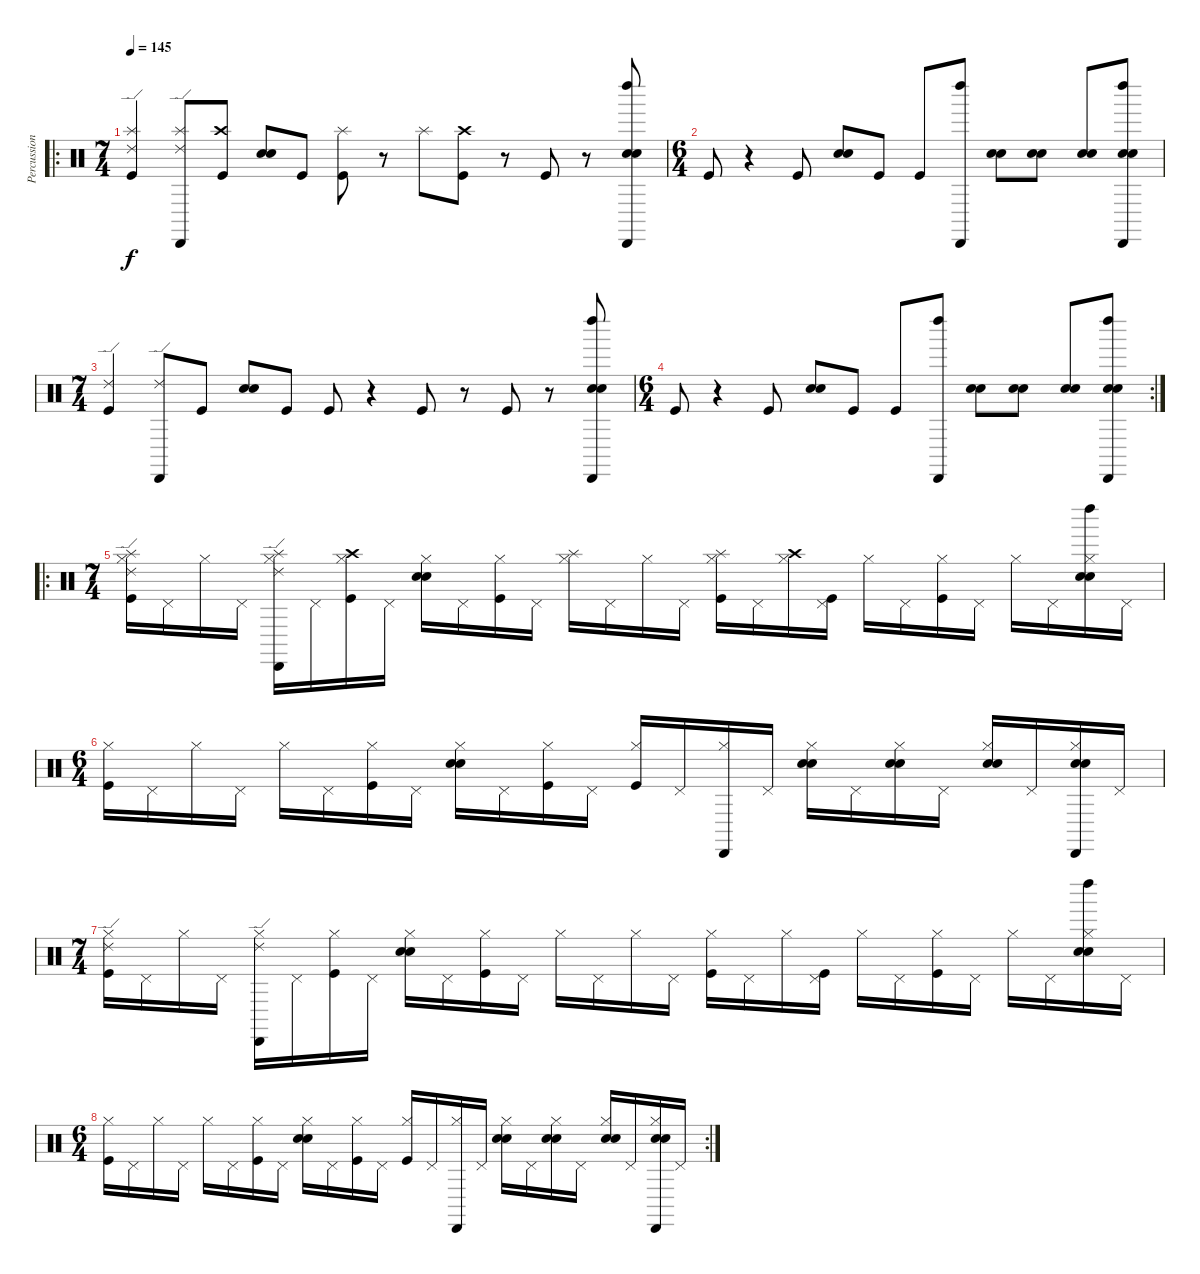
\track ("Percussion" "Percussion") {instrument percussion}
\staff {score}
\articulation defaults
\ro
\ts (7 4)
\tempo 145
\clef neutral
\ks c
("Ride (edge) 2" "Splash (hit)" "Kick (hit)").4{dy f} ("Ride (edge) 2" "Cabasa (hit)" "Splash (hit)").8 ("Crash high (hit)" "Kick (hit)").8 ("Electric Snare (hit)" "Snare (hit) 2").8 "Kick (hit)".8 ("Splash (hit)" "Kick (hit)").8 r.8 "Splash (hit)".8 ("Crash high (hit)" "Kick (hit)").8 r.8 "Kick (hit)".8 r.8 ("Cabasa (hit)" "Left Maraca (hit)" "Electric Snare (hit)" "Snare (hit) 2").8 |
\ts (6 4)
"Kick (hit)".8 r.4 "Kick (hit)".8 ("Electric Snare (hit)" "Snare (hit) 2").8 "Kick (hit)".8 "Kick (hit)".8 ("Left Maraca (hit)" "Cabasa (hit)").8 ("Electric Snare (hit)" "Snare (hit) 2").8 ("Electric Snare (hit)" "Snare (hit) 2").8 ("Electric Snare (hit)" "Snare (hit) 2").8 ("Left Maraca (hit)" "Cabasa (hit)" "Electric Snare (hit)" "Snare (hit) 2").8 |
\ts (7 4)
("Ride (edge) 2" "Kick (hit)").4 ("Ride (edge) 2" "Cabasa (hit)").8 "Kick (hit)".8 ("Electric Snare (hit)" "Snare (hit) 2").8 "Kick (hit)".8 "Kick (hit)".8 r.4 "Kick (hit)".8 r.8 "Kick (hit)".8 r.8 ("Cabasa (hit)" "Left Maraca (hit)" "Electric Snare (hit)" "Snare (hit) 2").8 |
\rc 2
\ts (6 4)
"Kick (hit)".8 r.4 "Kick (hit)".8 ("Electric Snare (hit)" "Snare (hit) 2").8 "Kick (hit)".8 "Kick (hit)".8 ("Left Maraca (hit)" "Cabasa (hit)").8 ("Electric Snare (hit)" "Snare (hit) 2").8 ("Electric Snare (hit)" "Snare (hit) 2").8 ("Electric Snare (hit)" "Snare (hit) 2").8 ("Left Maraca (hit)" "Cabasa (hit)" "Electric Snare (hit)" "Snare (hit) 2").8 |
\ro
\ts (7 4)
("Hi-Hat (closed)" "Splash (hit)" "Ride (edge) 2" "Kick (hit)").16 "Pedal Hi-Hat (hit)".16 "Hi-Hat (closed)".16 "Pedal Hi-Hat (hit)".16 ("Hi-Hat (closed)" "Cabasa (hit)" "Ride (edge) 2" "Splash (hit)").16 "Pedal Hi-Hat (hit)".16 ("Hi-Hat (closed)" "Crash high (hit)" "Kick (hit)").16 "Pedal Hi-Hat (hit)".16 ("Hi-Hat (closed)" "Electric Snare (hit)" "Snare (hit) 2").16 "Pedal Hi-Hat (hit)".16 ("Hi-Hat (closed)" "Kick (hit)").16 "Pedal Hi-Hat (hit)".16 ("Hi-Hat (closed)" "Splash (hit)").16 "Pedal Hi-Hat (hit)".16 "Hi-Hat (closed)".16 "Pedal Hi-Hat (hit)".16 ("Hi-Hat (closed)" "Splash (hit)" "Kick (hit)").16 "Pedal Hi-Hat (hit)".16 ("Hi-Hat (closed)" "Crash high (hit)").16 ("Pedal Hi-Hat (hit)" "Kick (hit)").16 "Hi-Hat (closed)".16 "Pedal Hi-Hat (hit)".16 ("Hi-Hat (closed)" "Kick (hit)").16 "Pedal Hi-Hat (hit)".16 "Hi-Hat (closed)".16 "Pedal Hi-Hat (hit)".16 ("Hi-Hat (closed)" "Left Maraca (hit)" "Electric Snare (hit)" "Snare (hit) 2").16 "Pedal Hi-Hat (hit)".16 |
\ts (6 4)
("Hi-Hat (closed)" "Kick (hit)").16 "Pedal Hi-Hat (hit)".16 "Hi-Hat (closed)".16 "Pedal Hi-Hat (hit)".16 "Hi-Hat (closed)".16 "Pedal Hi-Hat (hit)".16 ("Hi-Hat (closed)" "Kick (hit)").16 "Pedal Hi-Hat (hit)".16 ("Hi-Hat (closed)" "Electric Snare (hit)" "Snare (hit) 2").16 "Pedal Hi-Hat (hit)".16 ("Hi-Hat (closed)" "Kick (hit)").16 "Pedal Hi-Hat (hit)".16 ("Hi-Hat (closed)" "Kick (hit)").16 "Pedal Hi-Hat (hit)".16 ("Hi-Hat (closed)" "Cabasa (hit)").16 "Pedal Hi-Hat (hit)".16 ("Hi-Hat (closed)" "Electric Snare (hit)" "Snare (hit) 2").16 "Pedal Hi-Hat (hit)".16 ("Hi-Hat (closed)" "Electric Snare (hit)" "Snare (hit) 2").16 "Pedal Hi-Hat (hit)".16 ("Hi-Hat (closed)" "Electric Snare (hit)" "Snare (hit) 2").16 "Pedal Hi-Hat (hit)".16 ("Hi-Hat (closed)" "Cabasa (hit)" "Electric Snare (hit)" "Snare (hit) 2").16 "Pedal Hi-Hat (hit)".16 |
\ts (7 4)
("Hi-Hat (closed)" "Ride (edge) 2" "Kick (hit)").16 "Pedal Hi-Hat (hit)".16 "Hi-Hat (closed)".16 "Pedal Hi-Hat (hit)".16 ("Hi-Hat (closed)" "Cabasa (hit)" "Ride (edge) 2").16 "Pedal Hi-Hat (hit)".16 ("Hi-Hat (closed)" "Kick (hit)").16 "Pedal Hi-Hat (hit)".16 ("Hi-Hat (closed)" "Electric Snare (hit)" "Snare (hit) 2").16 "Pedal Hi-Hat (hit)".16 ("Hi-Hat (closed)" "Kick (hit)").16 "Pedal Hi-Hat (hit)".16 "Hi-Hat (closed)".16 "Pedal Hi-Hat (hit)".16 "Hi-Hat (closed)".16 "Pedal Hi-Hat (hit)".16 ("Hi-Hat (closed)" "Kick (hit)").16 "Pedal Hi-Hat (hit)".16 "Hi-Hat (closed)".16 ("Pedal Hi-Hat (hit)" "Kick (hit)").16 "Hi-Hat (closed)".16 "Pedal Hi-Hat (hit)".16 ("Hi-Hat (closed)" "Kick (hit)").16 "Pedal Hi-Hat (hit)".16 "Hi-Hat (closed)".16 "Pedal Hi-Hat (hit)".16 ("Hi-Hat (closed)" "Left Maraca (hit)" "Electric Snare (hit)" "Snare (hit) 2").16 "Pedal Hi-Hat (hit)".16 |
\rc 2
\ts (6 4)
("Hi-Hat (closed)" "Kick (hit)").16 "Pedal Hi-Hat (hit)".16 "Hi-Hat (closed)".16 "Pedal Hi-Hat (hit)".16 "Hi-Hat (closed)".16 "Pedal Hi-Hat (hit)".16 ("Hi-Hat (closed)" "Kick (hit)").16 "Pedal Hi-Hat (hit)".16 ("Hi-Hat (closed)" "Electric Snare (hit)" "Snare (hit) 2").16 "Pedal Hi-Hat (hit)".16 ("Hi-Hat (closed)" "Kick (hit)").16 "Pedal Hi-Hat (hit)".16 ("Hi-Hat (closed)" "Kick (hit)").16 "Pedal Hi-Hat (hit)".16 ("Hi-Hat (closed)" "Cabasa (hit)").16 "Pedal Hi-Hat (hit)".16 ("Hi-Hat (closed)" "Electric Snare (hit)" "Snare (hit) 2").16 "Pedal Hi-Hat (hit)".16 ("Hi-Hat (closed)" "Electric Snare (hit)" "Snare (hit) 2").16 "Pedal Hi-Hat (hit)".16 ("Hi-Hat (closed)" "Electric Snare (hit)" "Snare (hit) 2").16 "Pedal Hi-Hat (hit)".16 ("Hi-Hat (closed)" "Cabasa (hit)" "Electric Snare (hit)" "Snare (hit) 2").16 "Pedal Hi-Hat (hit)".16
